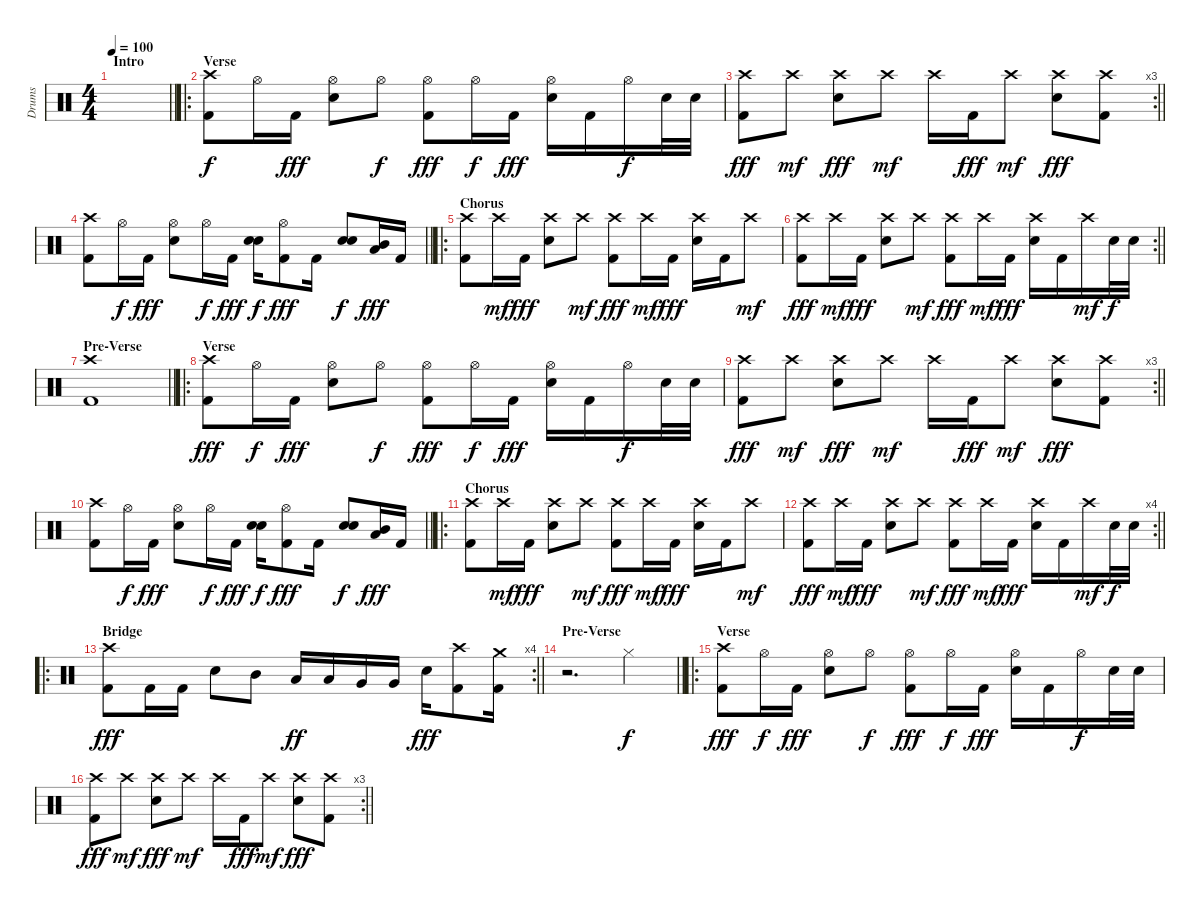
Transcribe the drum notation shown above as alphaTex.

\track ("Drums" "Drums") {instrument percussion}
\staff {score}
\articulation defaults
\ts (4 4)
\section ("" "Intro")
\tempo 100
\clef neutral
\barLineRight lightlight
\ks c
|
\ro
\section ("" "Verse")
("Crash high (hit)" "Kick (hit) 2").8 "Hi-Hat (open)".16{dy f} "Kick (hit) 2".16{dy fff} ("Hi-Hat (open)" "Electric Snare (hit)").8 "Hi-Hat (open)".8{dy f} ("Hi-Hat (open)" "Kick (hit) 2").8{dy fff} "Hi-Hat (open)".16{dy f} "Kick (hit) 2".16{dy fff} ("Hi-Hat (open)" "Electric Snare (hit)").16 "Kick (hit) 2".16 "Hi-Hat (open)".16{dy f} "Electric Snare (hit)".32 "Electric Snare (hit)".32 |
\rc 3
\barLineRight lightlight
("Crash high (hit)" "Kick (hit) 2").8{dy fff} "Crash high (hit)".8{dy mf} ("Crash high (hit)" "Electric Snare (hit)").8{dy fff} "Crash high (hit)".8{dy mf} "Crash high (hit)".16 "Kick (hit) 2".16{dy fff} "Crash high (hit)".8{dy mf} ("Crash high (hit)" "Electric Snare (hit)").8{dy fff} ("Crash high (hit)" "Kick (hit) 2").8 |
\barLineRight lightlight
("Crash high (hit)" "Kick (hit) 2").8 "Hi-Hat (open)".16{dy f} "Kick (hit) 2".16{dy fff} ("Hi-Hat (open)" "Electric Snare (hit)").8 "Hi-Hat (open)".16{dy f} "Kick (hit) 2".16{dy fff} ("Electric Snare (hit)" "Electric Snare (hit)").16{dy f} ("Hi-Hat (open)" "Kick (hit) 2").8{dy fff} "Kick (hit) 2".16 ("Electric Snare (hit)" "Electric Snare (hit)").8{dy f} ("Mid Tom (hit)" "Low Tom (hit)").16{dy fff} "Kick (hit) 2".16 |
\ro
\section ("" "Chorus")
("Crash high (hit)" "Kick (hit) 2").8 "Crash high (hit)".16{dy mf} "Kick (hit) 2".16{dy fff} ("Crash high (hit)" "Electric Snare (hit)").8 "Crash high (hit)".8{dy mf} ("Crash high (hit)" "Kick (hit) 2").8{dy fff} "Crash high (hit)".16{dy mf} "Kick (hit) 2".16{dy fff} ("Crash high (hit)" "Electric Snare (hit)").16 "Kick (hit) 2".16 "Crash high (hit)".8{dy mf} |
\rc 2
\barLineRight lightlight
("Crash high (hit)" "Kick (hit) 2").8{dy fff} "Crash high (hit)".16{dy mf} "Kick (hit) 2".16{dy fff} ("Crash high (hit)" "Electric Snare (hit)").8 "Crash high (hit)".8{dy mf} ("Crash high (hit)" "Kick (hit) 2").8{dy fff} "Crash high (hit)".16{dy mf} "Kick (hit) 2".16{dy fff} ("Crash high (hit)" "Electric Snare (hit)").16 "Kick (hit) 2".16 "Crash high (hit)".16{dy mf} "Electric Snare (hit)".32{dy f} "Electric Snare (hit)".32 |
\section ("" "Pre-Verse")
\barLineRight lightlight
("Crash high (hit)" "Kick (hit) 2").1 |
\ro
\section ("" "Verse")
("Crash high (hit)" "Kick (hit) 2").8{dy fff} "Hi-Hat (open)".16{dy f} "Kick (hit) 2".16{dy fff} ("Hi-Hat (open)" "Electric Snare (hit)").8 "Hi-Hat (open)".8{dy f} ("Hi-Hat (open)" "Kick (hit) 2").8{dy fff} "Hi-Hat (open)".16{dy f} "Kick (hit) 2".16{dy fff} ("Hi-Hat (open)" "Electric Snare (hit)").16 "Kick (hit) 2".16 "Hi-Hat (open)".16{dy f} "Electric Snare (hit)".32 "Electric Snare (hit)".32 |
\rc 3
\barLineRight lightlight
("Crash high (hit)" "Kick (hit) 2").8{dy fff} "Crash high (hit)".8{dy mf} ("Crash high (hit)" "Electric Snare (hit)").8{dy fff} "Crash high (hit)".8{dy mf} "Crash high (hit)".16 "Kick (hit) 2".16{dy fff} "Crash high (hit)".8{dy mf} ("Crash high (hit)" "Electric Snare (hit)").8{dy fff} ("Crash high (hit)" "Kick (hit) 2").8 |
\barLineRight lightlight
("Crash high (hit)" "Kick (hit) 2").8 "Hi-Hat (open)".16{dy f} "Kick (hit) 2".16{dy fff} ("Hi-Hat (open)" "Electric Snare (hit)").8 "Hi-Hat (open)".16{dy f} "Kick (hit) 2".16{dy fff} ("Electric Snare (hit)" "Electric Snare (hit)").16{dy f} ("Hi-Hat (open)" "Kick (hit) 2").8{dy fff} "Kick (hit) 2".16 ("Electric Snare (hit)" "Electric Snare (hit)").8{dy f} ("Mid Tom (hit)" "Low Tom (hit)").16{dy fff} "Kick (hit) 2".16 |
\ro
\section ("" "Chorus")
("Crash high (hit)" "Kick (hit) 2").8 "Crash high (hit)".16{dy mf} "Kick (hit) 2".16{dy fff} ("Crash high (hit)" "Electric Snare (hit)").8 "Crash high (hit)".8{dy mf} ("Crash high (hit)" "Kick (hit) 2").8{dy fff} "Crash high (hit)".16{dy mf} "Kick (hit) 2".16{dy fff} ("Crash high (hit)" "Electric Snare (hit)").16 "Kick (hit) 2".16 "Crash high (hit)".8{dy mf} |
\rc 4
\barLineRight lightlight
("Crash high (hit)" "Kick (hit) 2").8{dy fff} "Crash high (hit)".16{dy mf} "Kick (hit) 2".16{dy fff} ("Crash high (hit)" "Electric Snare (hit)").8 "Crash high (hit)".8{dy mf} ("Crash high (hit)" "Kick (hit) 2").8{dy fff} "Crash high (hit)".16{dy mf} "Kick (hit) 2".16{dy fff} ("Crash high (hit)" "Electric Snare (hit)").16 "Kick (hit) 2".16 "Crash high (hit)".16{dy mf} "Electric Snare (hit)".32{dy f} "Electric Snare (hit)".32 |
\ro
\rc 4
\section ("" "Bridge")
\barLineRight lightlight
("Crash high (hit)" "Kick (hit) 2").8{dy fff} "Kick (hit) 2".16 "Kick (hit) 2".16 "Electric Snare (hit)".8 "Mid Tom (hit)".8 "Low Tom (hit)".16{dy ff} "Low Tom (hit)".16 "Very Low Tom (hit)".16 "Very Low Tom (hit)".16 "Electric Snare (hit)".16{dy fff} ("Crash high (hit)" "Kick (hit) 2").8 ("Crash medium (hit)" "Kick (hit) 2").16 |
\section ("" "Pre-Verse")
\barLineRight lightlight
r.2{d} "Hi-Hat (closed)".4{dy f} |
\ro
\section ("" "Verse")
("Crash high (hit)" "Kick (hit) 2").8{dy fff} "Hi-Hat (open)".16{dy f} "Kick (hit) 2".16{dy fff} ("Hi-Hat (open)" "Electric Snare (hit)").8 "Hi-Hat (open)".8{dy f} ("Hi-Hat (open)" "Kick (hit) 2").8{dy fff} "Hi-Hat (open)".16{dy f} "Kick (hit) 2".16{dy fff} ("Hi-Hat (open)" "Electric Snare (hit)").16 "Kick (hit) 2".16 "Hi-Hat (open)".16{dy f} "Electric Snare (hit)".32 "Electric Snare (hit)".32 |
\rc 3
\barLineRight lightlight
("Crash high (hit)" "Kick (hit) 2").8{dy fff} "Crash high (hit)".8{dy mf} ("Crash high (hit)" "Electric Snare (hit)").8{dy fff} "Crash high (hit)".8{dy mf} "Crash high (hit)".16 "Kick (hit) 2".16{dy fff} "Crash high (hit)".8{dy mf} ("Crash high (hit)" "Electric Snare (hit)").8{dy fff} ("Crash high (hit)" "Kick (hit) 2").8
